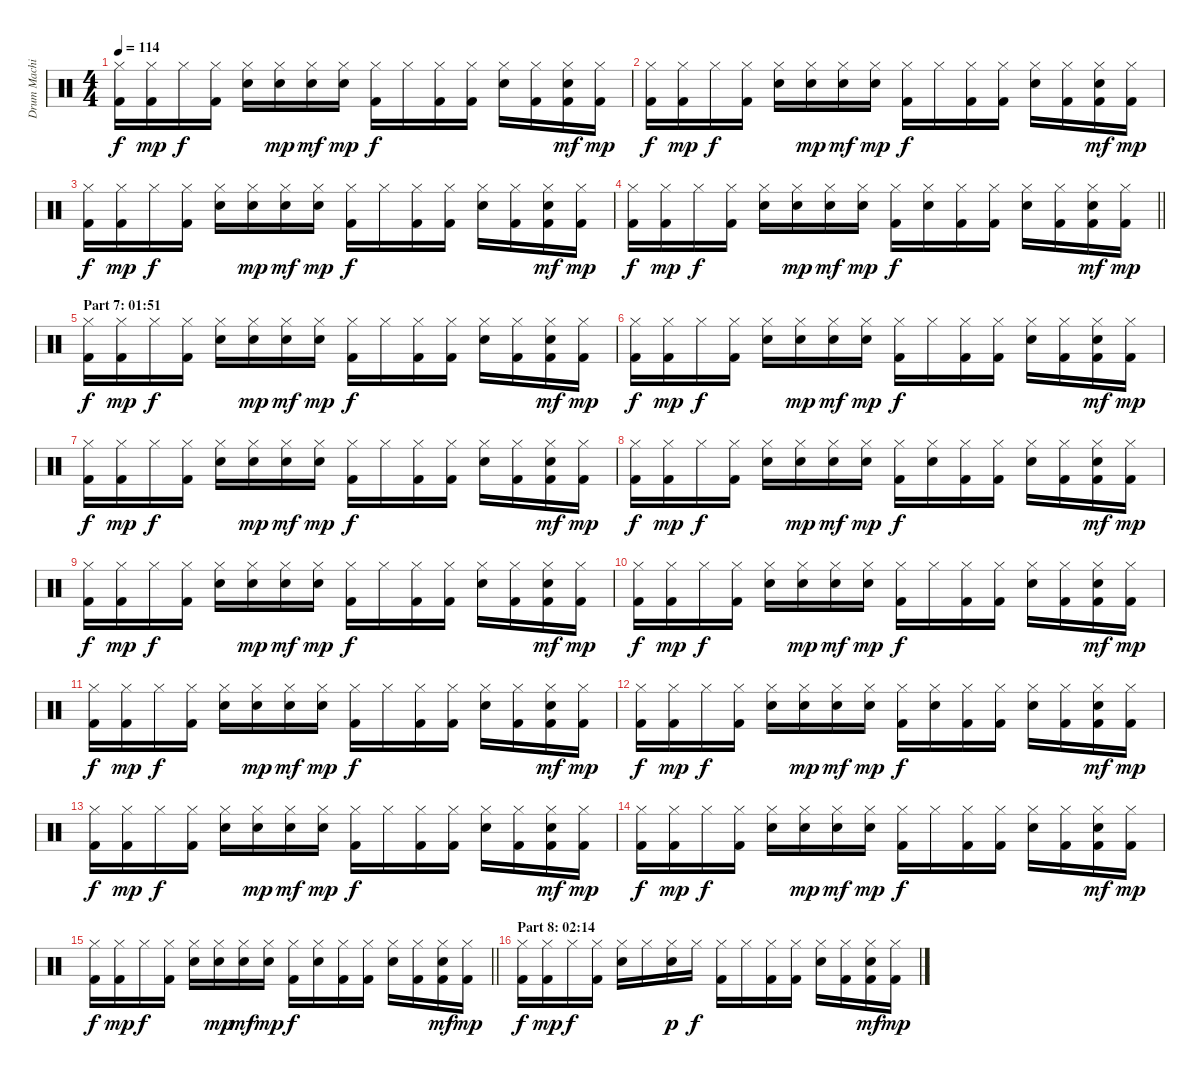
\track ("Drum Machine" "Drum Machi") {instrument percussion}
\staff {score}
\articulation defaults
\ts (4 4)
\tempo 114
\clef neutral
\ks c
("Hi-Hat (closed)" "Kick (hit) 2").16{dy f} ("Hi-Hat (closed)" "Kick (hit) 2").16{dy mp} "Hi-Hat (closed)".16{dy f} ("Hi-Hat (closed)" "Kick (hit) 2").16 ("Hi-Hat (closed)" "Electric Snare (hit)").16 ("Hi-Hat (closed)" "Electric Snare (hit)").16{dy mp} ("Hi-Hat (closed)" "Electric Snare (hit)").16{dy mf} ("Hi-Hat (closed)" "Electric Snare (hit)").16{dy mp} ("Hi-Hat (closed)" "Kick (hit) 2").16{dy f} "Hi-Hat (closed)".16 ("Hi-Hat (closed)" "Kick (hit) 2").16 ("Hi-Hat (closed)" "Kick (hit) 2").16 ("Hi-Hat (closed)" "Electric Snare (hit)").16 ("Hi-Hat (closed)" "Kick (hit) 2").16 ("Hi-Hat (closed)" "Electric Snare (hit)" "Kick (hit) 2").16{dy mf} ("Hi-Hat (closed)" "Kick (hit) 2").16{dy mp} |
("Hi-Hat (closed)" "Kick (hit) 2").16{dy f} ("Hi-Hat (closed)" "Kick (hit) 2").16{dy mp} "Hi-Hat (closed)".16{dy f} ("Hi-Hat (closed)" "Kick (hit) 2").16 ("Hi-Hat (closed)" "Electric Snare (hit)").16 ("Hi-Hat (closed)" "Electric Snare (hit)").16{dy mp} ("Hi-Hat (closed)" "Electric Snare (hit)").16{dy mf} ("Hi-Hat (closed)" "Electric Snare (hit)").16{dy mp} ("Hi-Hat (closed)" "Kick (hit) 2").16{dy f} "Hi-Hat (closed)".16 ("Hi-Hat (closed)" "Kick (hit) 2").16 ("Hi-Hat (closed)" "Kick (hit) 2").16 ("Hi-Hat (closed)" "Electric Snare (hit)").16 ("Hi-Hat (closed)" "Kick (hit) 2").16 ("Hi-Hat (closed)" "Electric Snare (hit)" "Kick (hit) 2").16{dy mf} ("Hi-Hat (closed)" "Kick (hit) 2").16{dy mp} |
("Hi-Hat (closed)" "Kick (hit) 2").16{dy f} ("Hi-Hat (closed)" "Kick (hit) 2").16{dy mp} "Hi-Hat (closed)".16{dy f} ("Hi-Hat (closed)" "Kick (hit) 2").16 ("Hi-Hat (closed)" "Electric Snare (hit)").16 ("Hi-Hat (closed)" "Electric Snare (hit)").16{dy mp} ("Hi-Hat (closed)" "Electric Snare (hit)").16{dy mf} ("Hi-Hat (closed)" "Electric Snare (hit)").16{dy mp} ("Hi-Hat (closed)" "Kick (hit) 2").16{dy f} "Hi-Hat (closed)".16 ("Hi-Hat (closed)" "Kick (hit) 2").16 ("Hi-Hat (closed)" "Kick (hit) 2").16 ("Hi-Hat (closed)" "Electric Snare (hit)").16 ("Hi-Hat (closed)" "Kick (hit) 2").16 ("Hi-Hat (closed)" "Electric Snare (hit)" "Kick (hit) 2").16{dy mf} ("Hi-Hat (closed)" "Kick (hit) 2").16{dy mp} |
\barLineRight lightlight
("Hi-Hat (closed)" "Kick (hit) 2").16{dy f} ("Hi-Hat (closed)" "Kick (hit) 2").16{dy mp} "Hi-Hat (closed)".16{dy f} ("Hi-Hat (closed)" "Kick (hit) 2").16 ("Hi-Hat (closed)" "Electric Snare (hit)").16 ("Hi-Hat (closed)" "Electric Snare (hit)").16{dy mp} ("Hi-Hat (closed)" "Electric Snare (hit)").16{dy mf} ("Hi-Hat (closed)" "Electric Snare (hit)").16{dy mp} ("Hi-Hat (closed)" "Kick (hit) 2").16{dy f} ("Hi-Hat (closed)" "Electric Snare (hit)").16 ("Hi-Hat (closed)" "Kick (hit) 2").16 ("Hi-Hat (closed)" "Kick (hit) 2").16 ("Hi-Hat (closed)" "Electric Snare (hit)").16 ("Hi-Hat (closed)" "Kick (hit) 2").16 ("Hi-Hat (closed)" "Electric Snare (hit)" "Kick (hit) 2").16{dy mf} ("Hi-Hat (closed)" "Kick (hit) 2").16{dy mp} |
\section ("" "Part 7: 01:51")
("Hi-Hat (closed)" "Kick (hit) 2").16{dy f} ("Hi-Hat (closed)" "Kick (hit) 2").16{dy mp} "Hi-Hat (closed)".16{dy f} ("Hi-Hat (closed)" "Kick (hit) 2").16 ("Hi-Hat (closed)" "Electric Snare (hit)").16 ("Hi-Hat (closed)" "Electric Snare (hit)").16{dy mp} ("Hi-Hat (closed)" "Electric Snare (hit)").16{dy mf} ("Hi-Hat (closed)" "Electric Snare (hit)").16{dy mp} ("Hi-Hat (closed)" "Kick (hit) 2").16{dy f} "Hi-Hat (closed)".16 ("Hi-Hat (closed)" "Kick (hit) 2").16 ("Hi-Hat (closed)" "Kick (hit) 2").16 ("Hi-Hat (closed)" "Electric Snare (hit)").16 ("Hi-Hat (closed)" "Kick (hit) 2").16 ("Hi-Hat (closed)" "Electric Snare (hit)" "Kick (hit) 2").16{dy mf} ("Hi-Hat (closed)" "Kick (hit) 2").16{dy mp} |
("Hi-Hat (closed)" "Kick (hit) 2").16{dy f} ("Hi-Hat (closed)" "Kick (hit) 2").16{dy mp} "Hi-Hat (closed)".16{dy f} ("Hi-Hat (closed)" "Kick (hit) 2").16 ("Hi-Hat (closed)" "Electric Snare (hit)").16 ("Hi-Hat (closed)" "Electric Snare (hit)").16{dy mp} ("Hi-Hat (closed)" "Electric Snare (hit)").16{dy mf} ("Hi-Hat (closed)" "Electric Snare (hit)").16{dy mp} ("Hi-Hat (closed)" "Kick (hit) 2").16{dy f} "Hi-Hat (closed)".16 ("Hi-Hat (closed)" "Kick (hit) 2").16 ("Hi-Hat (closed)" "Kick (hit) 2").16 ("Hi-Hat (closed)" "Electric Snare (hit)").16 ("Hi-Hat (closed)" "Kick (hit) 2").16 ("Hi-Hat (closed)" "Electric Snare (hit)" "Kick (hit) 2").16{dy mf} ("Hi-Hat (closed)" "Kick (hit) 2").16{dy mp} |
("Hi-Hat (closed)" "Kick (hit) 2").16{dy f} ("Hi-Hat (closed)" "Kick (hit) 2").16{dy mp} "Hi-Hat (closed)".16{dy f} ("Hi-Hat (closed)" "Kick (hit) 2").16 ("Hi-Hat (closed)" "Electric Snare (hit)").16 ("Hi-Hat (closed)" "Electric Snare (hit)").16{dy mp} ("Hi-Hat (closed)" "Electric Snare (hit)").16{dy mf} ("Hi-Hat (closed)" "Electric Snare (hit)").16{dy mp} ("Hi-Hat (closed)" "Kick (hit) 2").16{dy f} "Hi-Hat (closed)".16 ("Hi-Hat (closed)" "Kick (hit) 2").16 ("Hi-Hat (closed)" "Kick (hit) 2").16 ("Hi-Hat (closed)" "Electric Snare (hit)").16 ("Hi-Hat (closed)" "Kick (hit) 2").16 ("Hi-Hat (closed)" "Electric Snare (hit)" "Kick (hit) 2").16{dy mf} ("Hi-Hat (closed)" "Kick (hit) 2").16{dy mp} |
("Hi-Hat (closed)" "Kick (hit) 2").16{dy f} ("Hi-Hat (closed)" "Kick (hit) 2").16{dy mp} "Hi-Hat (closed)".16{dy f} ("Hi-Hat (closed)" "Kick (hit) 2").16 ("Hi-Hat (closed)" "Electric Snare (hit)").16 ("Hi-Hat (closed)" "Electric Snare (hit)").16{dy mp} ("Hi-Hat (closed)" "Electric Snare (hit)").16{dy mf} ("Hi-Hat (closed)" "Electric Snare (hit)").16{dy mp} ("Hi-Hat (closed)" "Kick (hit) 2").16{dy f} ("Hi-Hat (closed)" "Electric Snare (hit)").16 ("Hi-Hat (closed)" "Kick (hit) 2").16 ("Hi-Hat (closed)" "Kick (hit) 2").16 ("Hi-Hat (closed)" "Electric Snare (hit)").16 ("Hi-Hat (closed)" "Kick (hit) 2").16 ("Hi-Hat (closed)" "Electric Snare (hit)" "Kick (hit) 2").16{dy mf} ("Hi-Hat (closed)" "Kick (hit) 2").16{dy mp} |
("Hi-Hat (closed)" "Kick (hit) 2").16{dy f} ("Hi-Hat (closed)" "Kick (hit) 2").16{dy mp} "Hi-Hat (closed)".16{dy f} ("Hi-Hat (closed)" "Kick (hit) 2").16 ("Hi-Hat (closed)" "Electric Snare (hit)").16 ("Hi-Hat (closed)" "Electric Snare (hit)").16{dy mp} ("Hi-Hat (closed)" "Electric Snare (hit)").16{dy mf} ("Hi-Hat (closed)" "Electric Snare (hit)").16{dy mp} ("Hi-Hat (closed)" "Kick (hit) 2").16{dy f} "Hi-Hat (closed)".16 ("Hi-Hat (closed)" "Kick (hit) 2").16 ("Hi-Hat (closed)" "Kick (hit) 2").16 ("Hi-Hat (closed)" "Electric Snare (hit)").16 ("Hi-Hat (closed)" "Kick (hit) 2").16 ("Hi-Hat (closed)" "Electric Snare (hit)" "Kick (hit) 2").16{dy mf} ("Hi-Hat (closed)" "Kick (hit) 2").16{dy mp} |
("Hi-Hat (closed)" "Kick (hit) 2").16{dy f} ("Hi-Hat (closed)" "Kick (hit) 2").16{dy mp} "Hi-Hat (closed)".16{dy f} ("Hi-Hat (closed)" "Kick (hit) 2").16 ("Hi-Hat (closed)" "Electric Snare (hit)").16 ("Hi-Hat (closed)" "Electric Snare (hit)").16{dy mp} ("Hi-Hat (closed)" "Electric Snare (hit)").16{dy mf} ("Hi-Hat (closed)" "Electric Snare (hit)").16{dy mp} ("Hi-Hat (closed)" "Kick (hit) 2").16{dy f} "Hi-Hat (closed)".16 ("Hi-Hat (closed)" "Kick (hit) 2").16 ("Hi-Hat (closed)" "Kick (hit) 2").16 ("Hi-Hat (closed)" "Electric Snare (hit)").16 ("Hi-Hat (closed)" "Kick (hit) 2").16 ("Hi-Hat (closed)" "Electric Snare (hit)" "Kick (hit) 2").16{dy mf} ("Hi-Hat (closed)" "Kick (hit) 2").16{dy mp} |
("Hi-Hat (closed)" "Kick (hit) 2").16{dy f} ("Hi-Hat (closed)" "Kick (hit) 2").16{dy mp} "Hi-Hat (closed)".16{dy f} ("Hi-Hat (closed)" "Kick (hit) 2").16 ("Hi-Hat (closed)" "Electric Snare (hit)").16 ("Hi-Hat (closed)" "Electric Snare (hit)").16{dy mp} ("Hi-Hat (closed)" "Electric Snare (hit)").16{dy mf} ("Hi-Hat (closed)" "Electric Snare (hit)").16{dy mp} ("Hi-Hat (closed)" "Kick (hit) 2").16{dy f} "Hi-Hat (closed)".16 ("Hi-Hat (closed)" "Kick (hit) 2").16 ("Hi-Hat (closed)" "Kick (hit) 2").16 ("Hi-Hat (closed)" "Electric Snare (hit)").16 ("Hi-Hat (closed)" "Kick (hit) 2").16 ("Hi-Hat (closed)" "Electric Snare (hit)" "Kick (hit) 2").16{dy mf} ("Hi-Hat (closed)" "Kick (hit) 2").16{dy mp} |
("Hi-Hat (closed)" "Kick (hit) 2").16{dy f} ("Hi-Hat (closed)" "Kick (hit) 2").16{dy mp} "Hi-Hat (closed)".16{dy f} ("Hi-Hat (closed)" "Kick (hit) 2").16 ("Hi-Hat (closed)" "Electric Snare (hit)").16 ("Hi-Hat (closed)" "Electric Snare (hit)").16{dy mp} ("Hi-Hat (closed)" "Electric Snare (hit)").16{dy mf} ("Hi-Hat (closed)" "Electric Snare (hit)").16{dy mp} ("Hi-Hat (closed)" "Kick (hit) 2").16{dy f} ("Hi-Hat (closed)" "Electric Snare (hit)").16 ("Hi-Hat (closed)" "Kick (hit) 2").16 ("Hi-Hat (closed)" "Kick (hit) 2").16 ("Hi-Hat (closed)" "Electric Snare (hit)").16 ("Hi-Hat (closed)" "Kick (hit) 2").16 ("Hi-Hat (closed)" "Electric Snare (hit)" "Kick (hit) 2").16{dy mf} ("Hi-Hat (closed)" "Kick (hit) 2").16{dy mp} |
("Hi-Hat (closed)" "Kick (hit) 2").16{dy f} ("Hi-Hat (closed)" "Kick (hit) 2").16{dy mp} "Hi-Hat (closed)".16{dy f} ("Hi-Hat (closed)" "Kick (hit) 2").16 ("Hi-Hat (closed)" "Electric Snare (hit)").16 ("Hi-Hat (closed)" "Electric Snare (hit)").16{dy mp} ("Hi-Hat (closed)" "Electric Snare (hit)").16{dy mf} ("Hi-Hat (closed)" "Electric Snare (hit)").16{dy mp} ("Hi-Hat (closed)" "Kick (hit) 2").16{dy f} "Hi-Hat (closed)".16 ("Hi-Hat (closed)" "Kick (hit) 2").16 ("Hi-Hat (closed)" "Kick (hit) 2").16 ("Hi-Hat (closed)" "Electric Snare (hit)").16 ("Hi-Hat (closed)" "Kick (hit) 2").16 ("Hi-Hat (closed)" "Electric Snare (hit)" "Kick (hit) 2").16{dy mf} ("Hi-Hat (closed)" "Kick (hit) 2").16{dy mp} |
("Hi-Hat (closed)" "Kick (hit) 2").16{dy f} ("Hi-Hat (closed)" "Kick (hit) 2").16{dy mp} "Hi-Hat (closed)".16{dy f} ("Hi-Hat (closed)" "Kick (hit) 2").16 ("Hi-Hat (closed)" "Electric Snare (hit)").16 ("Hi-Hat (closed)" "Electric Snare (hit)").16{dy mp} ("Hi-Hat (closed)" "Electric Snare (hit)").16{dy mf} ("Hi-Hat (closed)" "Electric Snare (hit)").16{dy mp} ("Hi-Hat (closed)" "Kick (hit) 2").16{dy f} "Hi-Hat (closed)".16 ("Hi-Hat (closed)" "Kick (hit) 2").16 ("Hi-Hat (closed)" "Kick (hit) 2").16 ("Hi-Hat (closed)" "Electric Snare (hit)").16 ("Hi-Hat (closed)" "Kick (hit) 2").16 ("Hi-Hat (closed)" "Electric Snare (hit)" "Kick (hit) 2").16{dy mf} ("Hi-Hat (closed)" "Kick (hit) 2").16{dy mp} |
\barLineRight lightlight
("Hi-Hat (closed)" "Kick (hit) 2").16{dy f} ("Hi-Hat (closed)" "Kick (hit) 2").16{dy mp} "Hi-Hat (closed)".16{dy f} ("Hi-Hat (closed)" "Kick (hit) 2").16 ("Hi-Hat (closed)" "Electric Snare (hit)").16 ("Hi-Hat (closed)" "Electric Snare (hit)").16{dy mp} ("Hi-Hat (closed)" "Electric Snare (hit)").16{dy mf} ("Hi-Hat (closed)" "Electric Snare (hit)").16{dy mp} ("Hi-Hat (closed)" "Kick (hit) 2").16{dy f} ("Hi-Hat (closed)" "Electric Snare (hit)").16 ("Hi-Hat (closed)" "Kick (hit) 2").16 ("Hi-Hat (closed)" "Kick (hit) 2").16 ("Hi-Hat (closed)" "Electric Snare (hit)").16 ("Hi-Hat (closed)" "Kick (hit) 2").16 ("Hi-Hat (closed)" "Electric Snare (hit)" "Kick (hit) 2").16{dy mf} ("Hi-Hat (closed)" "Kick (hit) 2").16{dy mp} |
\section ("" "Part 8: 02:14")
("Hi-Hat (closed)" "Kick (hit) 2").16{dy f} ("Hi-Hat (closed)" "Kick (hit) 2").16{dy mp} "Hi-Hat (closed)".16{dy f} ("Hi-Hat (closed)" "Kick (hit) 2").16 ("Hi-Hat (closed)" "Electric Snare (hit)").16 "Hi-Hat (closed)".16 ("Hi-Hat (closed)" "Electric Snare (hit)").16{dy p} "Hi-Hat (closed)".16{dy f} ("Hi-Hat (closed)" "Kick (hit) 2").16 "Hi-Hat (closed)".16 ("Hi-Hat (closed)" "Kick (hit) 2").16 ("Hi-Hat (closed)" "Kick (hit) 2").16 ("Hi-Hat (closed)" "Electric Snare (hit)").16 ("Hi-Hat (closed)" "Kick (hit) 2").16 ("Hi-Hat (closed)" "Electric Snare (hit)" "Kick (hit) 2").16{dy mf} ("Hi-Hat (closed)" "Kick (hit) 2").16{dy mp}
